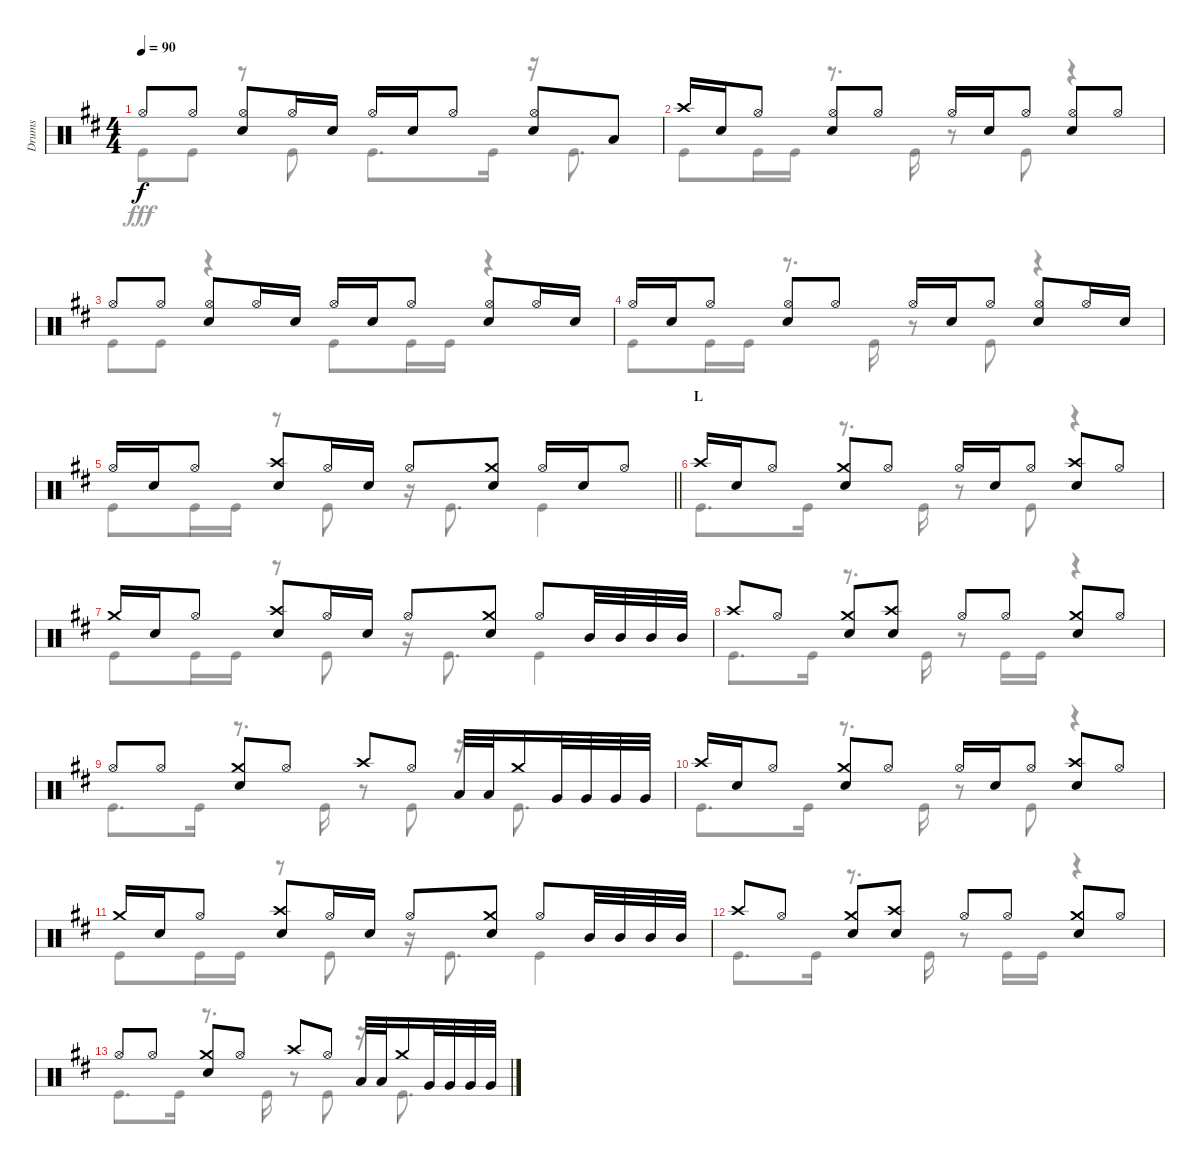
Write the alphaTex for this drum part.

\track ("Drums" "Drums") {instrument percussion}
\staff {score}
\articulation defaults
\voice
\ts (4 4)
\tempo 90
\clef neutral
\ks d "Hi-Hat (open)".8{dy f} "Hi-Hat (open)".8
("Hi-Hat (open)" "Snare (hit) 2").8 "Hi-Hat (open)".16 "Snare (hit) 2".16 "Hi-Hat (open)".16 "Snare (hit) 2".16 "Hi-Hat (open)".8 ("Hi-Hat (open)" "Snare (hit) 2").8 "Low Tom (hit)".8 |
"Crash high (hit)".16 "Snare (hit) 2".16 "Hi-Hat (open)".8 ("Hi-Hat (open)" "Snare (hit) 2").8 "Hi-Hat (open)".8 "Hi-Hat (open)".16 "Snare (hit) 2".16 "Hi-Hat (open)".8 ("Hi-Hat (open)" "Snare (hit) 2").8 "Hi-Hat (open)".8 |
"Hi-Hat (open)".8 "Hi-Hat (open)".8 ("Hi-Hat (open)" "Snare (hit) 2").8 "Hi-Hat (open)".16 "Snare (hit) 2".16 "Hi-Hat (open)".16 "Snare (hit) 2".16 "Hi-Hat (open)".8 ("Hi-Hat (open)" "Snare (hit) 2").8 "Hi-Hat (open)".16 "Snare (hit) 2".16 |
"Hi-Hat (open)".16 "Snare (hit) 2".16 "Hi-Hat (open)".8 ("Hi-Hat (open)" "Snare (hit) 2").8 "Hi-Hat (open)".8 "Hi-Hat (open)".16 "Snare (hit) 2".16 "Hi-Hat (open)".8 ("Hi-Hat (open)" "Snare (hit) 2").8 "Hi-Hat (open)".16 "Snare (hit) 2".16 |
\barLineRight lightlight "Hi-Hat (open)".16 "Snare (hit) 2".16 "Hi-Hat (open)".8
("Crash high (hit)" "Snare (hit) 2").8 "Hi-Hat (open)".16 "Snare (hit) 2".16 "Hi-Hat (open)".8 ("Crash medium (hit)" "Snare (hit) 2").8 "Hi-Hat (open)".16 "Snare (hit) 2".16 "Hi-Hat (open)".8 |
\section ("" "L")
"Crash high (hit)".16 "Snare (hit) 2".16 "Hi-Hat (open)".8 ("Crash medium (hit)" "Snare (hit) 2").8 "Hi-Hat (open)".8 "Hi-Hat (open)".16 "Snare (hit) 2".16 "Hi-Hat (open)".8 ("Crash high (hit)" "Snare (hit) 2").8 "Hi-Hat (open)".8 |
"Crash medium (hit)".16 "Snare (hit) 2".16 "Hi-Hat (open)".8 ("Crash high (hit)" "Snare (hit) 2").8 "Hi-Hat (open)".16 "Snare (hit) 2".16 "Hi-Hat (open)".8 ("Crash medium (hit)" "Snare (hit) 2").8 "Hi-Hat (open)".8 "Mid Tom (hit)".32 "Mid Tom (hit)".32 "Mid Tom (hit)".32 "Mid Tom (hit)".32 |
"Crash high (hit)".8 "Hi-Hat (open)".8 ("Crash medium (hit)" "Snare (hit) 2").8 ("Crash high (hit)" "Snare (hit) 2").8 "Hi-Hat (open)".8 "Hi-Hat (open)".8 ("Crash medium (hit)" "Snare (hit) 2").8 "Hi-Hat (open)".8 |
"Hi-Hat (open)".8 "Hi-Hat (open)".8 ("Crash medium (hit)" "Snare (hit) 2").8 "Hi-Hat (open)".8 "Crash high (hit)".8 "Hi-Hat (open)".8 "Low Tom (hit)".32 "Low Tom (hit)".32 "Crash medium (hit)".16 "Very Low Tom (hit)".32 "Very Low Tom (hit)".32 "Very Low Tom (hit)".32 "Very Low Tom (hit)".32 |
"Crash high (hit)".16 "Snare (hit) 2".16 "Hi-Hat (open)".8 ("Crash medium (hit)" "Snare (hit) 2").8 "Hi-Hat (open)".8 "Hi-Hat (open)".16 "Snare (hit) 2".16 "Hi-Hat (open)".8 ("Crash high (hit)" "Snare (hit) 2").8 "Hi-Hat (open)".8 |
"Crash medium (hit)".16 "Snare (hit) 2".16 "Hi-Hat (open)".8 ("Crash high (hit)" "Snare (hit) 2").8 "Hi-Hat (open)".16 "Snare (hit) 2".16 "Hi-Hat (open)".8 ("Crash medium (hit)" "Snare (hit) 2").8 "Hi-Hat (open)".8 "Mid Tom (hit)".32 "Mid Tom (hit)".32 "Mid Tom (hit)".32 "Mid Tom (hit)".32 |
"Crash high (hit)".8 "Hi-Hat (open)".8 ("Crash medium (hit)" "Snare (hit) 2").8 ("Crash high (hit)" "Snare (hit) 2").8 "Hi-Hat (open)".8 "Hi-Hat (open)".8 ("Crash medium (hit)" "Snare (hit) 2").8 "Hi-Hat (open)".8 |
"Hi-Hat (open)".8 "Hi-Hat (open)".8 ("Crash medium (hit)" "Snare (hit) 2").8 "Hi-Hat (open)".8 "Crash high (hit)".8 "Hi-Hat (open)".8 "Low Tom (hit)".32 "Low Tom (hit)".32 "Crash medium (hit)".16 "Very Low Tom (hit)".32 "Very Low Tom (hit)".32 "Very Low Tom (hit)".32 "Very Low Tom (hit)".32
\voice
\clef neutral
\ottava regular
\simile none
\ks d "Kick (hit)".8{dy fff} "Kick (hit)".8
r.8 "Kick (hit)".8 "Kick (hit)".8{d} "Kick (hit)".16 r.16 "Kick (hit)".8{d} |
"Kick (hit)".8 "Kick (hit)".16 "Kick (hit)".16 r.8{d} "Kick (hit)".16 r.8 "Kick (hit)".8 r.4 |
"Kick (hit)".8 "Kick (hit)".8 r.4 "Kick (hit)".8 "Kick (hit)".16 "Kick (hit)".16 r.4 |
"Kick (hit)".8 "Kick (hit)".16 "Kick (hit)".16 r.8{d} "Kick (hit)".16 r.8 "Kick (hit)".8 r.4 |
\barLineRight lightlight "Kick (hit)".8 "Kick (hit)".16 "Kick (hit)".16
r.8 "Kick (hit)".8 r.16 "Kick (hit)".8{d} "Kick (hit)".4 |
"Kick (hit)".8{d} "Kick (hit)".16 r.8{d} "Kick (hit)".16 r.8 "Kick (hit)".8 r.4 |
"Kick (hit)".8 "Kick (hit)".16 "Kick (hit)".16 r.8 "Kick (hit)".8 r.16 "Kick (hit)".8{d} "Kick (hit)".4 |
"Kick (hit)".8{d} "Kick (hit)".16 r.8{d} "Kick (hit)".16 r.8 "Kick (hit)".16 "Kick (hit)".16 r.4 |
"Kick (hit)".8{d} "Kick (hit)".16 r.8{d} "Kick (hit)".16 r.8 "Kick (hit)".8 r.16 "Kick (hit)".8{d} |
"Kick (hit)".8{d} "Kick (hit)".16 r.8{d} "Kick (hit)".16 r.8 "Kick (hit)".8 r.4 |
"Kick (hit)".8 "Kick (hit)".16 "Kick (hit)".16 r.8 "Kick (hit)".8 r.16 "Kick (hit)".8{d} "Kick (hit)".4 |
"Kick (hit)".8{d} "Kick (hit)".16 r.8{d} "Kick (hit)".16 r.8 "Kick (hit)".16 "Kick (hit)".16 r.4 |
"Kick (hit)".8{d} "Kick (hit)".16 r.8{d} "Kick (hit)".16 r.8 "Kick (hit)".8 r.16 "Kick (hit)".8{d}
